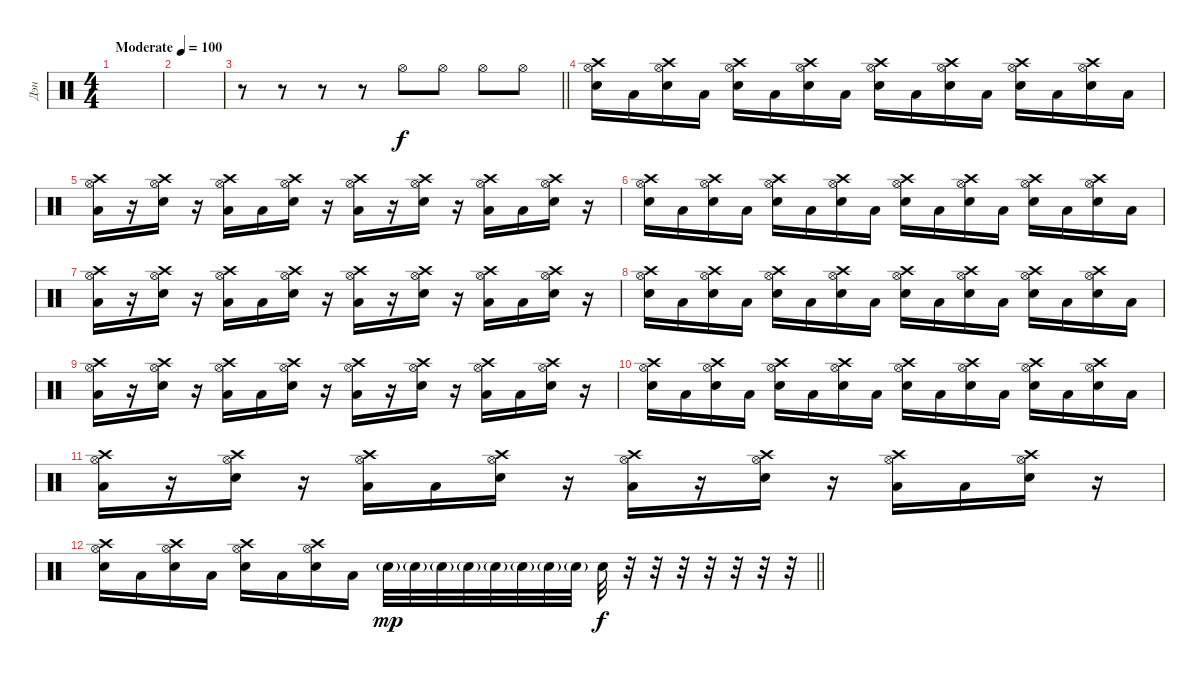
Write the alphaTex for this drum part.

\track ("Дэн" "Дэн") {instrument percussion}
\staff {score}
\articulation defaults
\ts (4 4)
\tempo (100 "Moderate")
\clef neutral
\ks c
|
|
\barLineRight lightlight
r.8 r.8 r.8 r.8 "Hi-Hat (open)".8 "Hi-Hat (open)".8 "Hi-Hat (open)".8 "Hi-Hat (open)".8 |
("Hi-Hat (open)" "Electric Snare (hit)" "Crash high (hit)").16 "Low Floor Tom (hit)".16 ("Hi-Hat (open)" "Electric Snare (hit)" "Crash high (hit)").16 "Low Floor Tom (hit)".16 ("Hi-Hat (open)" "Electric Snare (hit)" "Crash high (hit)").16 "Low Floor Tom (hit)".16 ("Hi-Hat (open)" "Electric Snare (hit)" "Crash high (hit)").16 "Low Floor Tom (hit)".16 ("Hi-Hat (open)" "Electric Snare (hit)" "Crash high (hit)").16 "Low Floor Tom (hit)".16 ("Hi-Hat (open)" "Electric Snare (hit)" "Crash high (hit)").16 "Low Floor Tom (hit)".16 ("Hi-Hat (open)" "Electric Snare (hit)" "Crash high (hit)").16 "Low Floor Tom (hit)".16 ("Hi-Hat (open)" "Electric Snare (hit)" "Crash high (hit)").16 "Low Floor Tom (hit)".16 |
("Hi-Hat (open)" "Crash high (hit)" "Low Floor Tom (hit)").16 r.16 ("Hi-Hat (open)" "Electric Snare (hit)" "Crash high (hit)").16 r.16 ("Hi-Hat (open)" "Low Floor Tom (hit)" "Crash high (hit)").16 "Low Floor Tom (hit)".16 ("Hi-Hat (open)" "Electric Snare (hit)" "Crash high (hit)").16 r.16 ("Hi-Hat (open)" "Crash high (hit)" "Low Floor Tom (hit)").16 r.16 ("Hi-Hat (open)" "Electric Snare (hit)" "Crash high (hit)").16 r.16 ("Hi-Hat (open)" "Low Floor Tom (hit)" "Crash high (hit)").16 "Low Floor Tom (hit)".16 ("Hi-Hat (open)" "Electric Snare (hit)" "Crash high (hit)").16 r.16 |
("Hi-Hat (open)" "Electric Snare (hit)" "Crash high (hit)").16 "Low Floor Tom (hit)".16 ("Hi-Hat (open)" "Electric Snare (hit)" "Crash high (hit)").16 "Low Floor Tom (hit)".16 ("Hi-Hat (open)" "Electric Snare (hit)" "Crash high (hit)").16 "Low Floor Tom (hit)".16 ("Hi-Hat (open)" "Electric Snare (hit)" "Crash high (hit)").16 "Low Floor Tom (hit)".16 ("Hi-Hat (open)" "Electric Snare (hit)" "Crash high (hit)").16 "Low Floor Tom (hit)".16 ("Hi-Hat (open)" "Electric Snare (hit)" "Crash high (hit)").16 "Low Floor Tom (hit)".16 ("Hi-Hat (open)" "Electric Snare (hit)" "Crash high (hit)").16 "Low Floor Tom (hit)".16 ("Hi-Hat (open)" "Electric Snare (hit)" "Crash high (hit)").16 "Low Floor Tom (hit)".16 |
("Hi-Hat (open)" "Crash high (hit)" "Low Floor Tom (hit)").16 r.16 ("Hi-Hat (open)" "Electric Snare (hit)" "Crash high (hit)").16 r.16 ("Hi-Hat (open)" "Low Floor Tom (hit)" "Crash high (hit)").16 "Low Floor Tom (hit)".16 ("Hi-Hat (open)" "Electric Snare (hit)" "Crash high (hit)").16 r.16 ("Hi-Hat (open)" "Crash high (hit)" "Low Floor Tom (hit)").16 r.16 ("Hi-Hat (open)" "Electric Snare (hit)" "Crash high (hit)").16 r.16 ("Hi-Hat (open)" "Low Floor Tom (hit)" "Crash high (hit)").16 "Low Floor Tom (hit)".16 ("Hi-Hat (open)" "Electric Snare (hit)" "Crash high (hit)").16 r.16 |
("Hi-Hat (open)" "Electric Snare (hit)" "Crash high (hit)").16 "Low Floor Tom (hit)".16 ("Hi-Hat (open)" "Electric Snare (hit)" "Crash high (hit)").16 "Low Floor Tom (hit)".16 ("Hi-Hat (open)" "Electric Snare (hit)" "Crash high (hit)").16 "Low Floor Tom (hit)".16 ("Hi-Hat (open)" "Electric Snare (hit)" "Crash high (hit)").16 "Low Floor Tom (hit)".16 ("Hi-Hat (open)" "Electric Snare (hit)" "Crash high (hit)").16 "Low Floor Tom (hit)".16 ("Hi-Hat (open)" "Electric Snare (hit)" "Crash high (hit)").16 "Low Floor Tom (hit)".16 ("Hi-Hat (open)" "Electric Snare (hit)" "Crash high (hit)").16 "Low Floor Tom (hit)".16 ("Hi-Hat (open)" "Electric Snare (hit)" "Crash high (hit)").16 "Low Floor Tom (hit)".16 |
("Hi-Hat (open)" "Crash high (hit)" "Low Floor Tom (hit)").16 r.16 ("Hi-Hat (open)" "Electric Snare (hit)" "Crash high (hit)").16 r.16 ("Hi-Hat (open)" "Low Floor Tom (hit)" "Crash high (hit)").16 "Low Floor Tom (hit)".16 ("Hi-Hat (open)" "Electric Snare (hit)" "Crash high (hit)").16 r.16 ("Hi-Hat (open)" "Crash high (hit)" "Low Floor Tom (hit)").16 r.16 ("Hi-Hat (open)" "Electric Snare (hit)" "Crash high (hit)").16 r.16 ("Hi-Hat (open)" "Low Floor Tom (hit)" "Crash high (hit)").16 "Low Floor Tom (hit)".16 ("Hi-Hat (open)" "Electric Snare (hit)" "Crash high (hit)").16 r.16 |
("Hi-Hat (open)" "Electric Snare (hit)" "Crash high (hit)").16 "Low Floor Tom (hit)".16 ("Hi-Hat (open)" "Electric Snare (hit)" "Crash high (hit)").16 "Low Floor Tom (hit)".16 ("Hi-Hat (open)" "Electric Snare (hit)" "Crash high (hit)").16 "Low Floor Tom (hit)".16 ("Hi-Hat (open)" "Electric Snare (hit)" "Crash high (hit)").16 "Low Floor Tom (hit)".16 ("Hi-Hat (open)" "Electric Snare (hit)" "Crash high (hit)").16 "Low Floor Tom (hit)".16 ("Hi-Hat (open)" "Electric Snare (hit)" "Crash high (hit)").16 "Low Floor Tom (hit)".16 ("Hi-Hat (open)" "Electric Snare (hit)" "Crash high (hit)").16 "Low Floor Tom (hit)".16 ("Hi-Hat (open)" "Electric Snare (hit)" "Crash high (hit)").16 "Low Floor Tom (hit)".16 |
("Hi-Hat (open)" "Crash high (hit)" "Low Floor Tom (hit)").16 r.16 ("Hi-Hat (open)" "Electric Snare (hit)" "Crash high (hit)").16 r.16 ("Hi-Hat (open)" "Low Floor Tom (hit)" "Crash high (hit)").16 "Low Floor Tom (hit)".16 ("Hi-Hat (open)" "Electric Snare (hit)" "Crash high (hit)").16 r.16 ("Hi-Hat (open)" "Crash high (hit)" "Low Floor Tom (hit)").16 r.16 ("Hi-Hat (open)" "Electric Snare (hit)" "Crash high (hit)").16 r.16 ("Hi-Hat (open)" "Low Floor Tom (hit)" "Crash high (hit)").16 "Low Floor Tom (hit)".16 ("Hi-Hat (open)" "Electric Snare (hit)" "Crash high (hit)").16 r.16 |
\barLineRight lightlight
("Hi-Hat (open)" "Electric Snare (hit)" "Crash high (hit)").16 "Low Floor Tom (hit)".16 ("Hi-Hat (open)" "Electric Snare (hit)" "Crash high (hit)").16 "Low Floor Tom (hit)".16 ("Hi-Hat (open)" "Electric Snare (hit)" "Crash high (hit)").16 "Low Floor Tom (hit)".16 ("Hi-Hat (open)" "Electric Snare (hit)" "Crash high (hit)").16 "Low Floor Tom (hit)".16 "Electric Snare (hit)"{g}.32{dy mp} "Electric Snare (hit)"{g}.32 "Electric Snare (hit)"{g}.32 "Electric Snare (hit)"{g}.32 "Electric Snare (hit)"{g}.32 "Electric Snare (hit)"{g}.32 "Electric Snare (hit)"{g}.32 "Electric Snare (hit)"{g}.32 "Electric Snare (hit)".32{dy f} r.32 r.32 r.32 r.32 r.32 r.32 r.32
